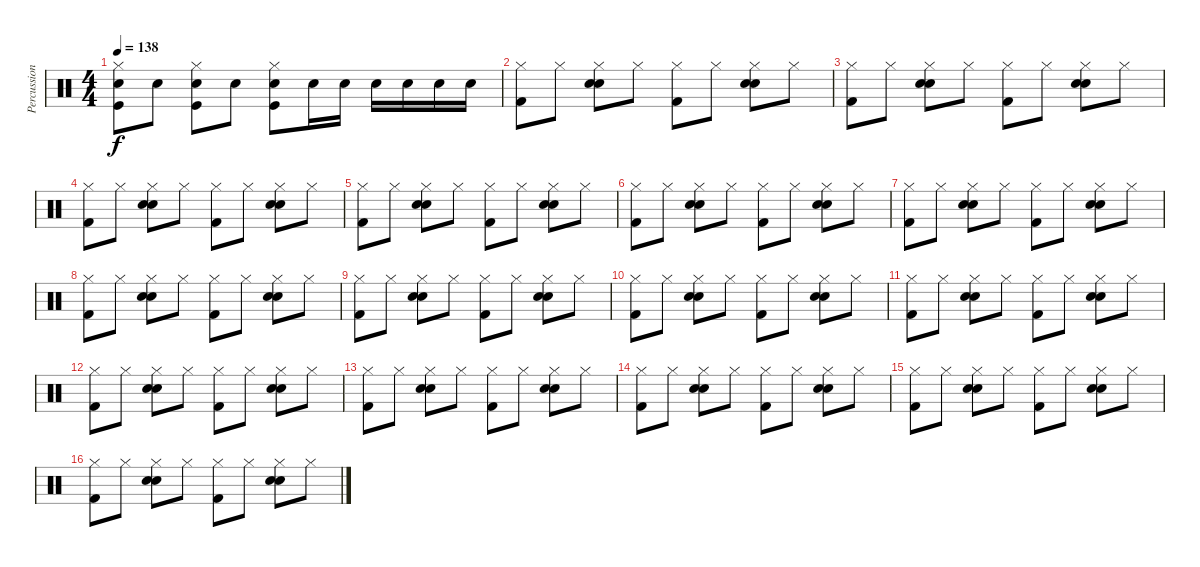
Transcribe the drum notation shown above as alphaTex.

\track ("Percussions" "Percussion") {instrument percussion}
\staff {score}
\articulation defaults
\ts (4 4)
\tempo 138
\clef neutral
\ks c
("Hi-Hat (closed)" "Kick (hit)" "Electric Snare (hit)").8{dy f} "Electric Snare (hit)".8 ("Hi-Hat (closed)" "Kick (hit)" "Electric Snare (hit)").8 "Electric Snare (hit)".8 ("Hi-Hat (closed)" "Kick (hit)" "Electric Snare (hit)").8 "Electric Snare (hit)".16 "Electric Snare (hit)".16 "Electric Snare (hit)".16 "Electric Snare (hit)".16 "Electric Snare (hit)".16 "Electric Snare (hit)".16 |
("Hi-Hat (closed)" "Kick (hit) 2").8 "Hi-Hat (closed)".8 ("Hi-Hat (closed)" "Snare (hit) 2" "Electric Snare (hit)").8 "Hi-Hat (closed)".8 ("Hi-Hat (closed)" "Kick (hit) 2").8 "Hi-Hat (closed)".8 ("Hi-Hat (closed)" "Snare (hit) 2" "Electric Snare (hit)").8 "Hi-Hat (closed)".8 |
("Hi-Hat (closed)" "Kick (hit) 2").8 "Hi-Hat (closed)".8 ("Hi-Hat (closed)" "Snare (hit) 2" "Electric Snare (hit)").8 "Hi-Hat (closed)".8 ("Hi-Hat (closed)" "Kick (hit) 2").8 "Hi-Hat (closed)".8 ("Hi-Hat (closed)" "Snare (hit) 2" "Electric Snare (hit)").8 "Hi-Hat (closed)".8 |
("Hi-Hat (closed)" "Kick (hit) 2").8 "Hi-Hat (closed)".8 ("Hi-Hat (closed)" "Snare (hit) 2" "Electric Snare (hit)").8 "Hi-Hat (closed)".8 ("Hi-Hat (closed)" "Kick (hit) 2").8 "Hi-Hat (closed)".8 ("Hi-Hat (closed)" "Snare (hit) 2" "Electric Snare (hit)").8 "Hi-Hat (closed)".8 |
("Hi-Hat (closed)" "Kick (hit) 2").8 "Hi-Hat (closed)".8 ("Hi-Hat (closed)" "Snare (hit) 2" "Electric Snare (hit)").8 "Hi-Hat (closed)".8 ("Hi-Hat (closed)" "Kick (hit) 2").8 "Hi-Hat (closed)".8 ("Hi-Hat (closed)" "Snare (hit) 2" "Electric Snare (hit)").8 "Hi-Hat (closed)".8 |
("Hi-Hat (closed)" "Kick (hit) 2").8 "Hi-Hat (closed)".8 ("Hi-Hat (closed)" "Snare (hit) 2" "Electric Snare (hit)").8 "Hi-Hat (closed)".8 ("Hi-Hat (closed)" "Kick (hit) 2").8 "Hi-Hat (closed)".8 ("Hi-Hat (closed)" "Snare (hit) 2" "Electric Snare (hit)").8 "Hi-Hat (closed)".8 |
("Hi-Hat (closed)" "Kick (hit) 2").8 "Hi-Hat (closed)".8 ("Hi-Hat (closed)" "Snare (hit) 2" "Electric Snare (hit)").8 "Hi-Hat (closed)".8 ("Hi-Hat (closed)" "Kick (hit) 2").8 "Hi-Hat (closed)".8 ("Hi-Hat (closed)" "Snare (hit) 2" "Electric Snare (hit)").8 "Hi-Hat (closed)".8 |
("Hi-Hat (closed)" "Kick (hit) 2").8 "Hi-Hat (closed)".8 ("Hi-Hat (closed)" "Snare (hit) 2" "Electric Snare (hit)").8 "Hi-Hat (closed)".8 ("Hi-Hat (closed)" "Kick (hit) 2").8 "Hi-Hat (closed)".8 ("Hi-Hat (closed)" "Snare (hit) 2" "Electric Snare (hit)").8 "Hi-Hat (closed)".8 |
("Hi-Hat (closed)" "Kick (hit) 2").8 "Hi-Hat (closed)".8 ("Hi-Hat (closed)" "Snare (hit) 2" "Electric Snare (hit)").8 "Hi-Hat (closed)".8 ("Hi-Hat (closed)" "Kick (hit) 2").8 "Hi-Hat (closed)".8 ("Hi-Hat (closed)" "Snare (hit) 2" "Electric Snare (hit)").8 "Hi-Hat (closed)".8 |
("Hi-Hat (closed)" "Kick (hit) 2").8 "Hi-Hat (closed)".8 ("Hi-Hat (closed)" "Snare (hit) 2" "Electric Snare (hit)").8 "Hi-Hat (closed)".8 ("Hi-Hat (closed)" "Kick (hit) 2").8 "Hi-Hat (closed)".8 ("Hi-Hat (closed)" "Snare (hit) 2" "Electric Snare (hit)").8 "Hi-Hat (closed)".8 |
("Hi-Hat (closed)" "Kick (hit) 2").8 "Hi-Hat (closed)".8 ("Hi-Hat (closed)" "Snare (hit) 2" "Electric Snare (hit)").8 "Hi-Hat (closed)".8 ("Hi-Hat (closed)" "Kick (hit) 2").8 "Hi-Hat (closed)".8 ("Hi-Hat (closed)" "Snare (hit) 2" "Electric Snare (hit)").8 "Hi-Hat (closed)".8 |
("Hi-Hat (closed)" "Kick (hit) 2").8 "Hi-Hat (closed)".8 ("Hi-Hat (closed)" "Snare (hit) 2" "Electric Snare (hit)").8 "Hi-Hat (closed)".8 ("Hi-Hat (closed)" "Kick (hit) 2").8 "Hi-Hat (closed)".8 ("Hi-Hat (closed)" "Snare (hit) 2" "Electric Snare (hit)").8 "Hi-Hat (closed)".8 |
("Hi-Hat (closed)" "Kick (hit) 2").8 "Hi-Hat (closed)".8 ("Hi-Hat (closed)" "Snare (hit) 2" "Electric Snare (hit)").8 "Hi-Hat (closed)".8 ("Hi-Hat (closed)" "Kick (hit) 2").8 "Hi-Hat (closed)".8 ("Hi-Hat (closed)" "Snare (hit) 2" "Electric Snare (hit)").8 "Hi-Hat (closed)".8 |
("Hi-Hat (closed)" "Kick (hit) 2").8 "Hi-Hat (closed)".8 ("Hi-Hat (closed)" "Snare (hit) 2" "Electric Snare (hit)").8 "Hi-Hat (closed)".8 ("Hi-Hat (closed)" "Kick (hit) 2").8 "Hi-Hat (closed)".8 ("Hi-Hat (closed)" "Snare (hit) 2" "Electric Snare (hit)").8 "Hi-Hat (closed)".8 |
("Hi-Hat (closed)" "Kick (hit) 2").8 "Hi-Hat (closed)".8 ("Hi-Hat (closed)" "Snare (hit) 2" "Electric Snare (hit)").8 "Hi-Hat (closed)".8 ("Hi-Hat (closed)" "Kick (hit) 2").8 "Hi-Hat (closed)".8 ("Hi-Hat (closed)" "Snare (hit) 2" "Electric Snare (hit)").8 "Hi-Hat (closed)".8 |
("Hi-Hat (closed)" "Kick (hit) 2").8 "Hi-Hat (closed)".8 ("Hi-Hat (closed)" "Snare (hit) 2" "Electric Snare (hit)").8 "Hi-Hat (closed)".8 ("Hi-Hat (closed)" "Kick (hit) 2").8 "Hi-Hat (closed)".8 ("Hi-Hat (closed)" "Snare (hit) 2" "Electric Snare (hit)").8 "Hi-Hat (closed)".8
